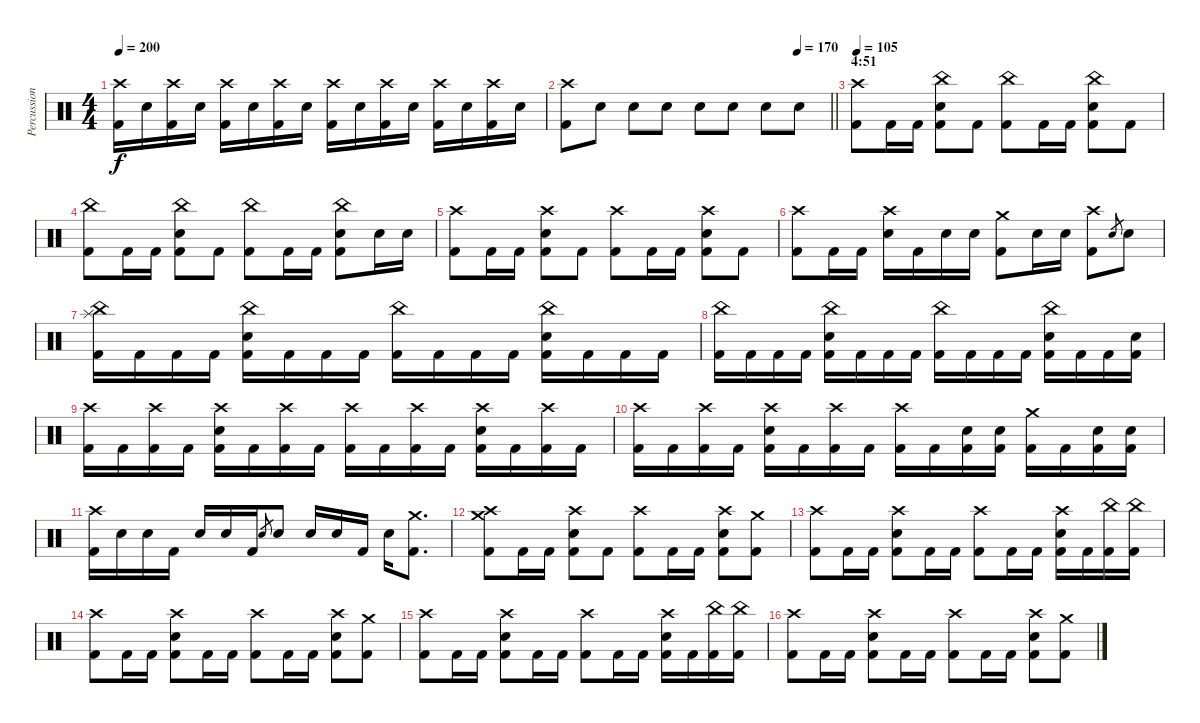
\track ("Percussion" "Percussion") {instrument percussion}
\staff {score}
\articulation defaults
\ts (4 4)
\tempo 200
\clef neutral
\ks c
("Crash high (hit)" "Kick (hit) 2").16{dy f} "Electric Snare (hit)".16 ("Crash high (hit)" "Kick (hit) 2").16 "Electric Snare (hit)".16 ("Crash high (hit)" "Kick (hit) 2").16 "Electric Snare (hit)".16 ("Crash high (hit)" "Kick (hit) 2").16 "Electric Snare (hit)".16 ("Crash high (hit)" "Kick (hit) 2").16 "Electric Snare (hit)".16 ("Crash high (hit)" "Kick (hit) 2").16 "Electric Snare (hit)".16 ("Crash high (hit)" "Kick (hit) 2").16 "Electric Snare (hit)".16 ("Crash high (hit)" "Kick (hit) 2").16 "Electric Snare (hit)".16 |
\tempo (170 0.875)
\barLineRight lightlight
("Crash high (hit)" "Kick (hit) 2").8 "Electric Snare (hit)".8 "Electric Snare (hit)".8 "Electric Snare (hit)".8 "Electric Snare (hit)".8 "Electric Snare (hit)".8 "Electric Snare (hit)".8 "Electric Snare (hit)".8 |
\section ("" "4:51")
\tempo 105
("Crash high (hit)" "Kick (hit) 2").8 "Kick (hit) 2".16 "Kick (hit) 2".16 ("Kick (hit) 2" "China (hit)" "Electric Snare (hit)").8 "Kick (hit) 2".8 ("China (hit)" "Kick (hit) 2").8 "Kick (hit) 2".16 "Kick (hit) 2".16 ("Kick (hit) 2" "China (hit)" "Electric Snare (hit)").8 "Kick (hit) 2".8 |
("China (hit)" "Kick (hit) 2").8 "Kick (hit) 2".16 "Kick (hit) 2".16 ("Kick (hit) 2" "China (hit)" "Electric Snare (hit)").8 "Kick (hit) 2".8 ("China (hit)" "Kick (hit) 2").8 "Kick (hit) 2".16 "Kick (hit) 2".16 ("Kick (hit) 2" "China (hit)" "Electric Snare (hit)").8 "Electric Snare (hit)".16 "Electric Snare (hit)".16 |
("Crash high (hit)" "Kick (hit) 2").8 "Kick (hit) 2".16 "Kick (hit) 2".16 ("Kick (hit) 2" "Crash high (hit)" "Electric Snare (hit)").8 "Kick (hit) 2".8 ("Crash high (hit)" "Kick (hit) 2").8 "Kick (hit) 2".16 "Kick (hit) 2".16 ("Kick (hit) 2" "Crash high (hit)" "Electric Snare (hit)").8 "Kick (hit) 2".8 |
("Crash high (hit)" "Kick (hit) 2").8 "Kick (hit) 2".16 "Kick (hit) 2".16 ("Crash high (hit)" "Electric Snare (hit)").16 "Kick (hit) 2".16 "Electric Snare (hit)".16 "Electric Snare (hit)".16 ("Crash medium (hit)" "Kick (hit) 2").8 "Electric Snare (hit)".16 "Electric Snare (hit)".16 ("Crash high (hit)" "Kick (hit) 2").8 "Electric Snare (hit)".8{gr} "Electric Snare (hit)".8 |
("China (hit)" "Splash (hit)" "Kick (hit) 2").16 "Kick (hit) 2".16 "Kick (hit) 2".16 "Kick (hit) 2".16 ("Kick (hit) 2" "China (hit)" "Electric Snare (hit)").16 "Kick (hit) 2".16 "Kick (hit) 2".16 "Kick (hit) 2".16 ("Kick (hit) 2" "China (hit)").16 "Kick (hit) 2".16 "Kick (hit) 2".16 "Kick (hit) 2".16 ("Kick (hit) 2" "China (hit)" "Electric Snare (hit)").16 "Kick (hit) 2".16 "Kick (hit) 2".16 "Kick (hit) 2".16 |
("China (hit)" "Kick (hit) 2").16 "Kick (hit) 2".16 "Kick (hit) 2".16 "Kick (hit) 2".16 ("Kick (hit) 2" "China (hit)" "Electric Snare (hit)").16 "Kick (hit) 2".16 "Kick (hit) 2".16 "Kick (hit) 2".16 ("Kick (hit) 2" "China (hit)").16 "Kick (hit) 2".16 "Kick (hit) 2".16 "Kick (hit) 2".16 ("Kick (hit) 2" "China (hit)" "Electric Snare (hit)").16 "Kick (hit) 2".16 "Kick (hit) 2".16 ("Kick (hit) 2" "Electric Snare (hit)").16 |
("Crash high (hit)" "Kick (hit) 2").16 "Kick (hit) 2".16 ("Kick (hit) 2" "Crash high (hit)").16 "Kick (hit) 2".16 ("Kick (hit) 2" "Crash high (hit)" "Electric Snare (hit)").16 "Kick (hit) 2".16 ("Kick (hit) 2" "Crash high (hit)").16 "Kick (hit) 2".16 ("Kick (hit) 2" "Crash high (hit)").16 "Kick (hit) 2".16 ("Kick (hit) 2" "Crash high (hit)").16 "Kick (hit) 2".16 ("Kick (hit) 2" "Crash high (hit)" "Electric Snare (hit)").16 "Kick (hit) 2".16 ("Kick (hit) 2" "Crash high (hit)").16 "Kick (hit) 2".16 |
("Crash high (hit)" "Kick (hit) 2").16 "Kick (hit) 2".16 ("Kick (hit) 2" "Crash high (hit)").16 "Kick (hit) 2".16 ("Kick (hit) 2" "Crash high (hit)" "Electric Snare (hit)").16 "Kick (hit) 2".16 ("Kick (hit) 2" "Crash high (hit)").16 "Kick (hit) 2".16 ("Kick (hit) 2" "Crash high (hit)").16 "Kick (hit) 2".16 ("Kick (hit) 2" "Electric Snare (hit)").16 ("Kick (hit) 2" "Electric Snare (hit)").16 ("Kick (hit) 2" "Crash medium (hit)").16 "Kick (hit) 2".16 ("Kick (hit) 2" "Electric Snare (hit)").16 ("Kick (hit) 2" "Electric Snare (hit)").16 |
("Crash high (hit)" "Kick (hit) 2").16 "Electric Snare (hit)".16 "Electric Snare (hit)".16 "Kick (hit) 2".16 "Electric Snare (hit)".16 "Electric Snare (hit)".16 "Kick (hit) 2".16 "Electric Snare (hit)".8{gr} "Electric Snare (hit)".8 "Electric Snare (hit)".16 "Electric Snare (hit)".16 "Kick (hit) 2".16 "Electric Snare (hit)".16 ("Crash medium (hit)" "Kick (hit) 2").8{d} |
("Crash high (hit)" "Crash medium (hit)" "Kick (hit) 2").8 "Kick (hit) 2".16 "Kick (hit) 2".16 ("Kick (hit) 2" "Crash high (hit)" "Electric Snare (hit)").8 "Kick (hit) 2".8 ("Kick (hit) 2" "Crash high (hit)").8 "Kick (hit) 2".16 "Kick (hit) 2".16 ("Kick (hit) 2" "Crash high (hit)" "Electric Snare (hit)").8 ("Kick (hit) 2" "Crash medium (hit)").8 |
("Crash high (hit)" "Kick (hit) 2").8 "Kick (hit) 2".16 "Kick (hit) 2".16 ("Kick (hit) 2" "Crash high (hit)" "Electric Snare (hit)").8 "Kick (hit) 2".16 "Kick (hit) 2".16 ("Kick (hit) 2" "Crash high (hit)").8 "Kick (hit) 2".16 "Kick (hit) 2".16 ("Kick (hit) 2" "Crash high (hit)" "Electric Snare (hit)").16 "Kick (hit) 2".16 ("Kick (hit) 2" "China (hit)").16 ("Kick (hit) 2" "China (hit)").16 |
("Crash high (hit)" "Kick (hit) 2").8 "Kick (hit) 2".16 "Kick (hit) 2".16 ("Kick (hit) 2" "Crash high (hit)" "Electric Snare (hit)").8 "Kick (hit) 2".16 "Kick (hit) 2".16 ("Kick (hit) 2" "Crash high (hit)").8 "Kick (hit) 2".16 "Kick (hit) 2".16 ("Kick (hit) 2" "Crash high (hit)" "Electric Snare (hit)").8 ("Kick (hit) 2" "Crash medium (hit)").8 |
("Crash high (hit)" "Kick (hit) 2").8 "Kick (hit) 2".16 "Kick (hit) 2".16 ("Kick (hit) 2" "Crash high (hit)" "Electric Snare (hit)").8 "Kick (hit) 2".16 "Kick (hit) 2".16 ("Kick (hit) 2" "Crash high (hit)").8 "Kick (hit) 2".16 "Kick (hit) 2".16 ("Kick (hit) 2" "Crash high (hit)" "Electric Snare (hit)").16 "Kick (hit) 2".16 ("Kick (hit) 2" "China (hit)").16 ("Kick (hit) 2" "China (hit)").16 |
("Crash high (hit)" "Kick (hit) 2").8 "Kick (hit) 2".16 "Kick (hit) 2".16 ("Kick (hit) 2" "Crash high (hit)" "Electric Snare (hit)").8 "Kick (hit) 2".16 "Kick (hit) 2".16 ("Kick (hit) 2" "Crash high (hit)").8 "Kick (hit) 2".16 "Kick (hit) 2".16 ("Kick (hit) 2" "Crash high (hit)" "Electric Snare (hit)").8 ("Kick (hit) 2" "Crash medium (hit)").8
